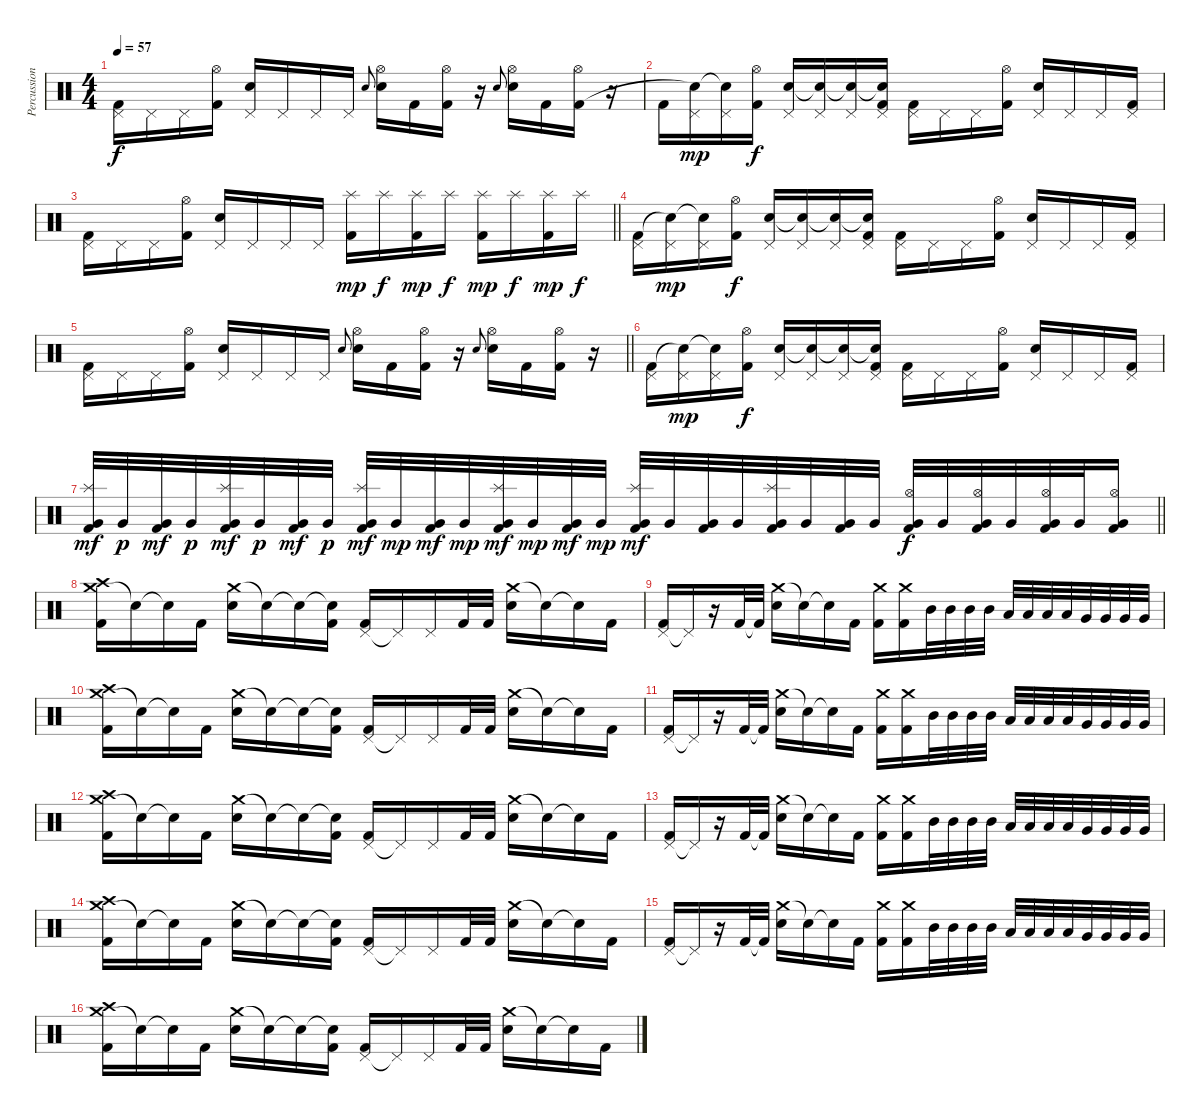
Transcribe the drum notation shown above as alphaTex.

\track ("Percussion" "Percussion") {instrument percussion}
\staff {score}
\articulation defaults
\ts (4 4)
\tempo 57
\clef neutral
\ks c
("Pedal Hi-Hat (hit)" "Kick (hit) 2").16{dy f} "Pedal Hi-Hat (hit)".16 "Pedal Hi-Hat (hit)".16 ("Hi-Hat (open)" "Kick (hit) 2").16 ("Pedal Hi-Hat (hit)" "Snare (hit) 2").16 "Pedal Hi-Hat (hit)".16 "Pedal Hi-Hat (hit)".16 "Pedal Hi-Hat (hit)".16 "Snare (hit) 2".8{gr onbeat} ("Hi-Hat (open)" "Snare (hit) 2").16 "Kick (hit) 2".16 ("Hi-Hat (open)" "Kick (hit) 2").16 r.16 "Snare (hit) 2".8{gr onbeat} ("Hi-Hat (open)" "Snare (hit) 2").16 "Kick (hit) 2".16 ("Hi-Hat (open)" "Kick (hit) 2").16 r.16 |
"Kick (hit) 2".16 ("Pedal Hi-Hat (hit)" "Snare (hit)"{t}).16{dy mp} ("Pedal Hi-Hat (hit)" "Snare (hit)"{t}).16 ("Hi-Hat (open)" "Kick (hit) 2").16{dy f} ("Pedal Hi-Hat (hit)" "Snare (hit) 2").16 ("Pedal Hi-Hat (hit)" "Snare (hit)"{t}).16 ("Pedal Hi-Hat (hit)" "Snare (hit)"{t}).16 ("Pedal Hi-Hat (hit)" "Snare (hit)"{t} "Kick (hit) 2").16 ("Pedal Hi-Hat (hit)" "Kick (hit) 2").16 "Pedal Hi-Hat (hit)".16 "Pedal Hi-Hat (hit)".16 ("Hi-Hat (open)" "Kick (hit) 2").16 ("Pedal Hi-Hat (hit)" "Snare (hit) 2").16 "Pedal Hi-Hat (hit)".16 "Pedal Hi-Hat (hit)".16 ("Pedal Hi-Hat (hit)" "Kick (hit) 2").16 |
\barLineRight lightlight
("Pedal Hi-Hat (hit)" "Kick (hit) 2").16 "Pedal Hi-Hat (hit)".16 "Pedal Hi-Hat (hit)".16 ("Hi-Hat (open)" "Kick (hit) 2").16 ("Pedal Hi-Hat (hit)" "Snare (hit) 2").16 "Pedal Hi-Hat (hit)".16 "Pedal Hi-Hat (hit)".16 "Pedal Hi-Hat (hit)".16 ("Splash (hit)" "Kick (hit) 2").16{dy mp} "Splash (hit)".16{dy f} ("Splash (hit)" "Kick (hit) 2").16{dy mp} "Splash (hit)".16{dy f} ("Splash (hit)" "Kick (hit) 2").16{dy mp} "Splash (hit)".16{dy f} ("Splash (hit)" "Kick (hit) 2").16{dy mp} "Splash (hit)".16{dy f} |
("Pedal Hi-Hat (hit)" "Kick (hit) 2").16 ("Pedal Hi-Hat (hit)" "Snare (hit)"{t}).16{dy mp} ("Pedal Hi-Hat (hit)" "Snare (hit)"{t}).16 ("Hi-Hat (open)" "Kick (hit) 2").16{dy f} ("Pedal Hi-Hat (hit)" "Snare (hit) 2").16 ("Pedal Hi-Hat (hit)" "Snare (hit)"{t}).16 ("Pedal Hi-Hat (hit)" "Snare (hit)"{t}).16 ("Pedal Hi-Hat (hit)" "Snare (hit)"{t} "Kick (hit) 2").16 ("Pedal Hi-Hat (hit)" "Kick (hit) 2").16 "Pedal Hi-Hat (hit)".16 "Pedal Hi-Hat (hit)".16 ("Hi-Hat (open)" "Kick (hit) 2").16 ("Pedal Hi-Hat (hit)" "Snare (hit) 2").16 "Pedal Hi-Hat (hit)".16 "Pedal Hi-Hat (hit)".16 ("Pedal Hi-Hat (hit)" "Kick (hit) 2").16 |
\barLineRight lightlight
("Pedal Hi-Hat (hit)" "Kick (hit) 2").16 "Pedal Hi-Hat (hit)".16 "Pedal Hi-Hat (hit)".16 ("Hi-Hat (open)" "Kick (hit) 2").16 ("Pedal Hi-Hat (hit)" "Snare (hit) 2").16 "Pedal Hi-Hat (hit)".16 "Pedal Hi-Hat (hit)".16 "Pedal Hi-Hat (hit)".16 "Snare (hit) 2".8{gr onbeat} ("Hi-Hat (open)" "Snare (hit) 2").16 "Kick (hit) 2".16 ("Hi-Hat (open)" "Kick (hit) 2").16 r.16 "Snare (hit) 2".8{gr onbeat} ("Hi-Hat (open)" "Snare (hit) 2").16 "Kick (hit) 2".16 ("Hi-Hat (open)" "Kick (hit) 2").16 r.16 |
("Pedal Hi-Hat (hit)" "Kick (hit) 2").16 ("Pedal Hi-Hat (hit)" "Snare (hit)"{t}).16{dy mp} ("Pedal Hi-Hat (hit)" "Snare (hit)"{t}).16 ("Hi-Hat (open)" "Kick (hit) 2").16{dy f} ("Pedal Hi-Hat (hit)" "Snare (hit) 2").16 ("Pedal Hi-Hat (hit)" "Snare (hit)"{t}).16 ("Pedal Hi-Hat (hit)" "Snare (hit)"{t}).16 ("Pedal Hi-Hat (hit)" "Snare (hit)"{t} "Kick (hit) 2").16 ("Pedal Hi-Hat (hit)" "Kick (hit) 2").16 "Pedal Hi-Hat (hit)".16 "Pedal Hi-Hat (hit)".16 ("Hi-Hat (open)" "Kick (hit) 2").16 ("Pedal Hi-Hat (hit)" "Snare (hit) 2").16 "Pedal Hi-Hat (hit)".16 "Pedal Hi-Hat (hit)".16 ("Pedal Hi-Hat (hit)" "Kick (hit) 2").16 |
\barLineRight lightlight
("Splash (hit)" "Very Low Tom (hit)" "Kick (hit) 2").32{dy mf} "Very Low Tom (hit)".32{dy p} ("Very Low Tom (hit)" "Kick (hit) 2").32{dy mf} "Very Low Tom (hit)".32{dy p} ("Splash (hit)" "Very Low Tom (hit)" "Kick (hit) 2").32{dy mf} "Very Low Tom (hit)".32{dy p} ("Very Low Tom (hit)" "Kick (hit) 2").32{dy mf} "Very Low Tom (hit)".32{dy p} ("Splash (hit)" "Very Low Tom (hit)" "Kick (hit) 2").32{dy mf} "Very Low Tom (hit)".32{dy mp} ("Very Low Tom (hit)" "Kick (hit) 2").32{dy mf} "Very Low Tom (hit)".32{dy mp} ("Splash (hit)" "Very Low Tom (hit)" "Kick (hit) 2").32{dy mf} "Very Low Tom (hit)".32{dy mp} ("Very Low Tom (hit)" "Kick (hit) 2").32{dy mf} "Very Low Tom (hit)".32{dy mp} ("Splash (hit)" "Very Low Tom (hit)" "Kick (hit) 2").32{dy mf} "Very Low Tom (hit)".32 ("Very Low Tom (hit)" "Kick (hit) 2").32 "Very Low Tom (hit)".32 ("Splash (hit)" "Very Low Tom (hit)" "Kick (hit) 2").32 "Very Low Tom (hit)".32 ("Very Low Tom (hit)" "Kick (hit) 2").32 "Very Low Tom (hit)".32 ("Hi-Hat (open)" "Very Low Tom (hit)" "Kick (hit) 2").32{dy f} "Very Low Tom (hit)".32 ("Hi-Hat (open)" "Very Low Tom (hit)" "Kick (hit) 2").32 "Very Low Tom (hit)".32 ("Hi-Hat (open)" "Very Low Tom (hit)" "Kick (hit) 2").32 "Very Low Tom (hit)".32 ("Hi-Hat (open)" "Very Low Tom (hit)" "Kick (hit) 2").16 |
("Crash medium (hit)" "Crash high (hit)" "Kick (hit) 2").16 "Snare (hit)"{t}.16 "Snare (hit)"{t}.16 "Kick (hit) 2".16 ("Crash medium (hit)" "Snare (hit) 2").16 "Snare (hit)"{t}.16 "Snare (hit)"{t}.16 ("Snare (hit)"{t} "Kick (hit) 2").16 ("Pedal Hi-Hat (hit)" "Kick (hit) 2").16 "Pedal Hi-Hat (hit)"{t}.16 "Pedal Hi-Hat (hit)".16 "Kick (hit) 2".32 "Kick (hit) 2".32 ("Crash medium (hit)" "Snare (hit) 2").16 "Snare (hit)"{t}.16 "Snare (hit)"{t}.16 "Kick (hit) 2".16 |
("Pedal Hi-Hat (hit)" "Kick (hit) 2").16 "Pedal Hi-Hat (hit)"{t}.16 r.16 "Kick (hit) 2".32 "Kick (hit) 2"{t}.32 ("Crash medium (hit)" "Snare (hit) 2").16 "Snare (hit)"{t}.16 "Snare (hit)"{t}.16 "Kick (hit) 2".16 ("Crash medium (hit)" "Kick (hit) 2").16 ("Crash medium (hit)" "Kick (hit) 2").16 "Mid Tom (hit)".32 "Mid Tom (hit)".32 "Mid Tom (hit)".32 "Mid Tom (hit)".32 "Low Tom (hit)".32 "Low Tom (hit)".32 "Low Tom (hit)".32 "Low Tom (hit)".32 "Very Low Tom (hit)".32 "Very Low Tom (hit)".32 "Very Low Tom (hit)".32 "Very Low Tom (hit)".32 |
("Crash medium (hit)" "Crash high (hit)" "Kick (hit) 2").16 "Snare (hit)"{t}.16 "Snare (hit)"{t}.16 "Kick (hit) 2".16 ("Crash medium (hit)" "Snare (hit) 2").16 "Snare (hit)"{t}.16 "Snare (hit)"{t}.16 ("Snare (hit)"{t} "Kick (hit) 2").16 ("Pedal Hi-Hat (hit)" "Kick (hit) 2").16 "Pedal Hi-Hat (hit)"{t}.16 "Pedal Hi-Hat (hit)".16 "Kick (hit) 2".32 "Kick (hit) 2".32 ("Crash medium (hit)" "Snare (hit) 2").16 "Snare (hit)"{t}.16 "Snare (hit)"{t}.16 "Kick (hit) 2".16 |
("Pedal Hi-Hat (hit)" "Kick (hit) 2").16 "Pedal Hi-Hat (hit)"{t}.16 r.16 "Kick (hit) 2".32 "Kick (hit) 2"{t}.32 ("Crash medium (hit)" "Snare (hit) 2").16 "Snare (hit)"{t}.16 "Snare (hit)"{t}.16 "Kick (hit) 2".16 ("Crash medium (hit)" "Kick (hit) 2").16 ("Crash medium (hit)" "Kick (hit) 2").16 "Mid Tom (hit)".32 "Mid Tom (hit)".32 "Mid Tom (hit)".32 "Mid Tom (hit)".32 "Low Tom (hit)".32 "Low Tom (hit)".32 "Low Tom (hit)".32 "Low Tom (hit)".32 "Very Low Tom (hit)".32 "Very Low Tom (hit)".32 "Very Low Tom (hit)".32 "Very Low Tom (hit)".32 |
("Crash medium (hit)" "Crash high (hit)" "Kick (hit) 2").16 "Snare (hit)"{t}.16 "Snare (hit)"{t}.16 "Kick (hit) 2".16 ("Crash medium (hit)" "Snare (hit) 2").16 "Snare (hit)"{t}.16 "Snare (hit)"{t}.16 ("Snare (hit)"{t} "Kick (hit) 2").16 ("Pedal Hi-Hat (hit)" "Kick (hit) 2").16 "Pedal Hi-Hat (hit)"{t}.16 "Pedal Hi-Hat (hit)".16 "Kick (hit) 2".32 "Kick (hit) 2".32 ("Crash medium (hit)" "Snare (hit) 2").16 "Snare (hit)"{t}.16 "Snare (hit)"{t}.16 "Kick (hit) 2".16 |
("Pedal Hi-Hat (hit)" "Kick (hit) 2").16 "Pedal Hi-Hat (hit)"{t}.16 r.16 "Kick (hit) 2".32 "Kick (hit) 2"{t}.32 ("Crash medium (hit)" "Snare (hit) 2").16 "Snare (hit)"{t}.16 "Snare (hit)"{t}.16 "Kick (hit) 2".16 ("Crash medium (hit)" "Kick (hit) 2").16 ("Crash medium (hit)" "Kick (hit) 2").16 "Mid Tom (hit)".32 "Mid Tom (hit)".32 "Mid Tom (hit)".32 "Mid Tom (hit)".32 "Low Tom (hit)".32 "Low Tom (hit)".32 "Low Tom (hit)".32 "Low Tom (hit)".32 "Very Low Tom (hit)".32 "Very Low Tom (hit)".32 "Very Low Tom (hit)".32 "Very Low Tom (hit)".32 |
("Crash medium (hit)" "Crash high (hit)" "Kick (hit) 2").16 "Snare (hit)"{t}.16 "Snare (hit)"{t}.16 "Kick (hit) 2".16 ("Crash medium (hit)" "Snare (hit) 2").16 "Snare (hit)"{t}.16 "Snare (hit)"{t}.16 ("Snare (hit)"{t} "Kick (hit) 2").16 ("Pedal Hi-Hat (hit)" "Kick (hit) 2").16 "Pedal Hi-Hat (hit)"{t}.16 "Pedal Hi-Hat (hit)".16 "Kick (hit) 2".32 "Kick (hit) 2".32 ("Crash medium (hit)" "Snare (hit) 2").16 "Snare (hit)"{t}.16 "Snare (hit)"{t}.16 "Kick (hit) 2".16 |
("Pedal Hi-Hat (hit)" "Kick (hit) 2").16 "Pedal Hi-Hat (hit)"{t}.16 r.16 "Kick (hit) 2".32 "Kick (hit) 2"{t}.32 ("Crash medium (hit)" "Snare (hit) 2").16 "Snare (hit)"{t}.16 "Snare (hit)"{t}.16 "Kick (hit) 2".16 ("Crash medium (hit)" "Kick (hit) 2").16 ("Crash medium (hit)" "Kick (hit) 2").16 "Mid Tom (hit)".32 "Mid Tom (hit)".32 "Mid Tom (hit)".32 "Mid Tom (hit)".32 "Low Tom (hit)".32 "Low Tom (hit)".32 "Low Tom (hit)".32 "Low Tom (hit)".32 "Very Low Tom (hit)".32 "Very Low Tom (hit)".32 "Very Low Tom (hit)".32 "Very Low Tom (hit)".32 |
("Crash medium (hit)" "Crash high (hit)" "Kick (hit) 2").16 "Snare (hit)"{t}.16 "Snare (hit)"{t}.16 "Kick (hit) 2".16 ("Crash medium (hit)" "Snare (hit) 2").16 "Snare (hit)"{t}.16 "Snare (hit)"{t}.16 ("Snare (hit)"{t} "Kick (hit) 2").16 ("Pedal Hi-Hat (hit)" "Kick (hit) 2").16 "Pedal Hi-Hat (hit)"{t}.16 "Pedal Hi-Hat (hit)".16 "Kick (hit) 2".32 "Kick (hit) 2".32 ("Crash medium (hit)" "Snare (hit) 2").16 "Snare (hit)"{t}.16 "Snare (hit)"{t}.16 "Kick (hit) 2".16
